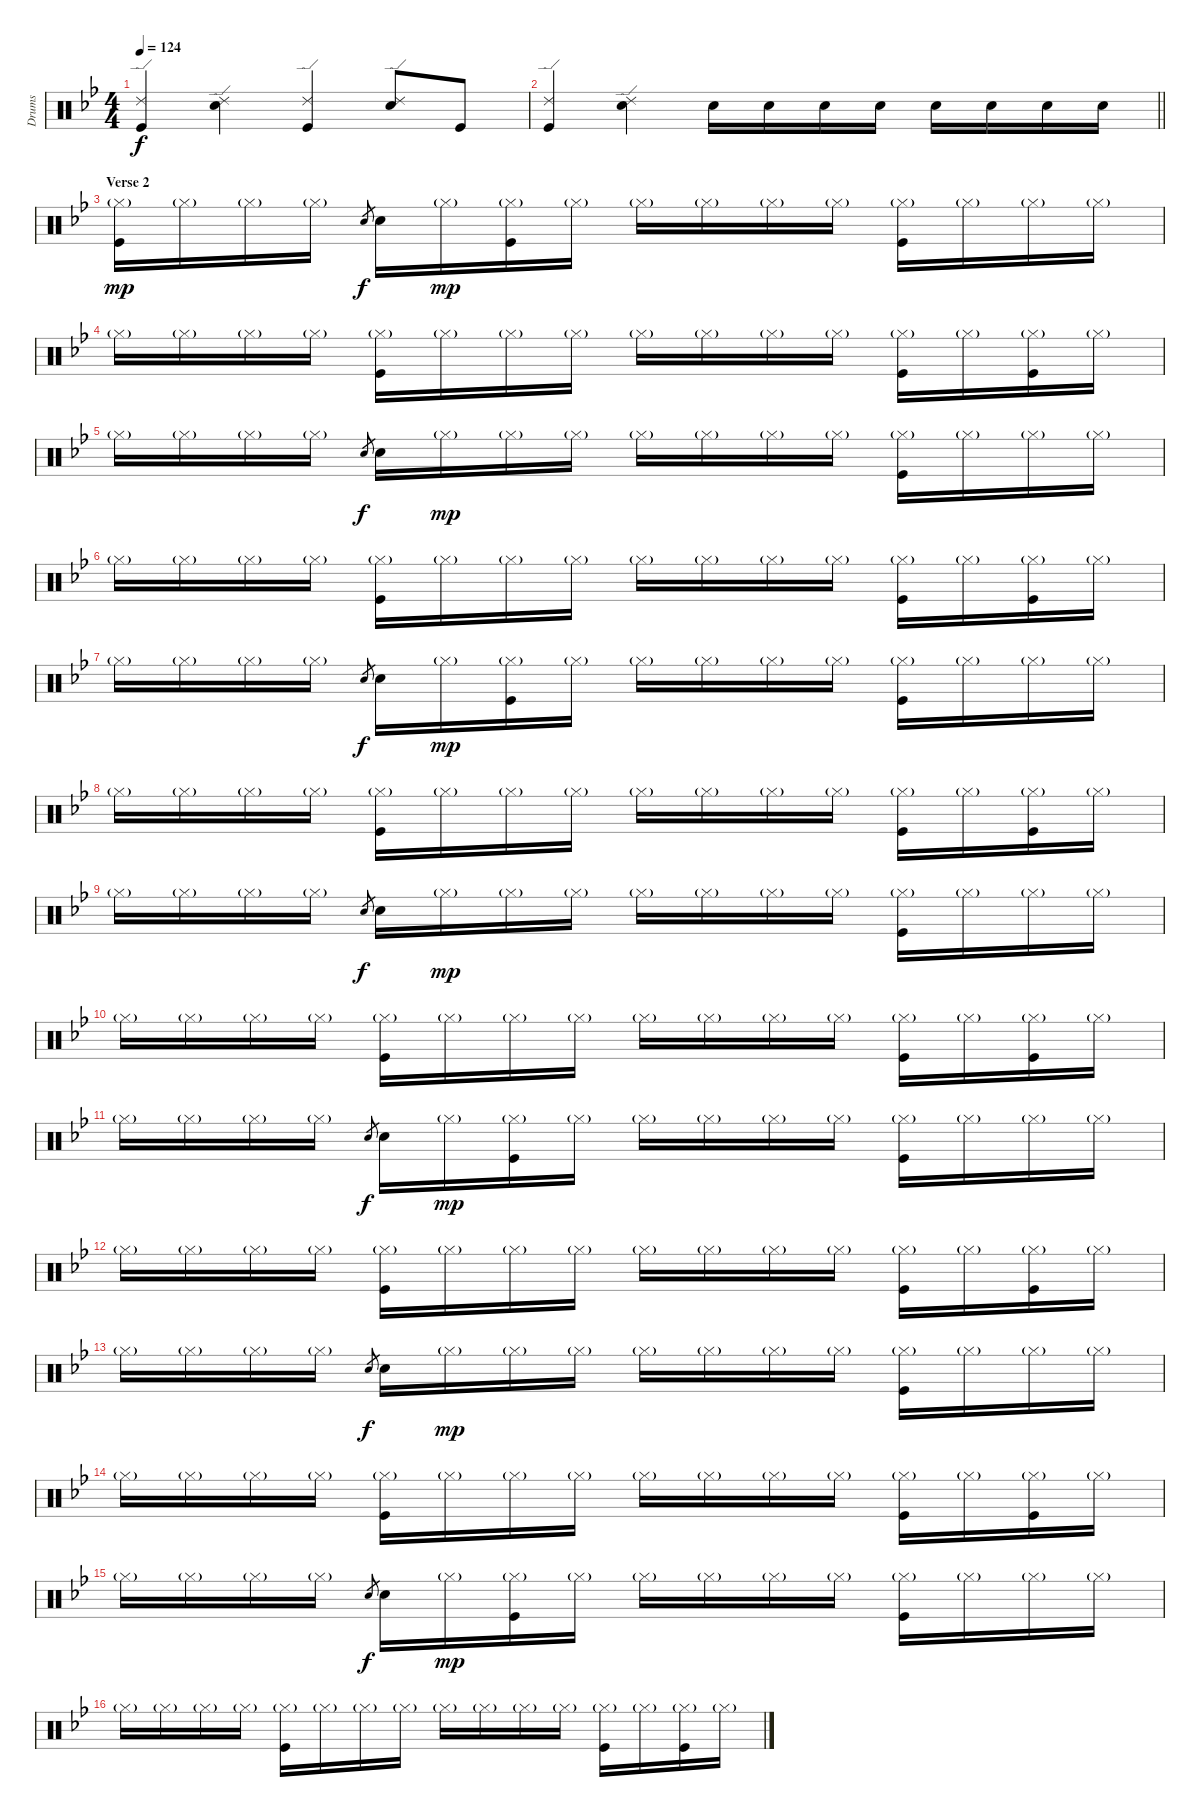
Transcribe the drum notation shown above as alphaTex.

\track ("Drums" "Drums") {instrument percussion}
\staff {score}
\articulation defaults
\ts (4 4)
\tempo 124
\clef neutral
\ks gminor
("Ride (edge) 2" "Kick (hit)").4{dy f} ("Ride (edge) 2" "Snare (hit) 2").4 ("Ride (edge) 2" "Kick (hit)").4 ("Ride (edge) 2" "Snare (hit) 2").8 "Kick (hit)".8 |
\barLineRight lightlight
("Ride (edge) 2" "Kick (hit)").4 ("Ride (edge) 2" "Snare (hit) 2").4 "Snare (hit) 2".16 "Snare (hit) 2".16 "Snare (hit) 2".16 "Snare (hit) 2".16 "Snare (hit) 2".16 "Snare (hit) 2".16 "Snare (hit) 2".16 "Snare (hit) 2".16 |
\section ("" "Verse 2")
("Hi-Hat (closed)"{g} "Kick (hit)").16{dy mp} "Hi-Hat (closed)"{g}.16 "Hi-Hat (closed)"{g}.16 "Hi-Hat (closed)"{g}.16 "Snare (hit) 2"{h}.8{gr dy f} "Snare (hit) 2".16 "Hi-Hat (closed)"{g}.16{dy mp} ("Hi-Hat (closed)"{g} "Kick (hit)").16 "Hi-Hat (closed)"{g}.16 "Hi-Hat (closed)"{g}.16 "Hi-Hat (closed)"{g}.16 "Hi-Hat (closed)"{g}.16 "Hi-Hat (closed)"{g}.16 ("Hi-Hat (closed)"{g} "Kick (hit)").16 "Hi-Hat (closed)"{g}.16 "Hi-Hat (closed)"{g}.16 "Hi-Hat (closed)"{g}.16 |
"Hi-Hat (closed)"{g}.16 "Hi-Hat (closed)"{g}.16 "Hi-Hat (closed)"{g}.16 "Hi-Hat (closed)"{g}.16 ("Hi-Hat (closed)"{g} "Kick (hit)").16 "Hi-Hat (closed)"{g}.16 "Hi-Hat (closed)"{g}.16 "Hi-Hat (closed)"{g}.16 "Hi-Hat (closed)"{g}.16 "Hi-Hat (closed)"{g}.16 "Hi-Hat (closed)"{g}.16 "Hi-Hat (closed)"{g}.16 ("Hi-Hat (closed)"{g} "Kick (hit)").16 "Hi-Hat (closed)"{g}.16 ("Hi-Hat (closed)"{g} "Kick (hit)").16 "Hi-Hat (closed)"{g}.16 |
"Hi-Hat (closed)"{g}.16 "Hi-Hat (closed)"{g}.16 "Hi-Hat (closed)"{g}.16 "Hi-Hat (closed)"{g}.16 "Snare (hit) 2"{h}.8{gr dy f} "Snare (hit) 2".16 "Hi-Hat (closed)"{g}.16{dy mp} "Hi-Hat (closed)"{g}.16 "Hi-Hat (closed)"{g}.16 "Hi-Hat (closed)"{g}.16 "Hi-Hat (closed)"{g}.16 "Hi-Hat (closed)"{g}.16 "Hi-Hat (closed)"{g}.16 ("Hi-Hat (closed)"{g} "Kick (hit)").16 "Hi-Hat (closed)"{g}.16 "Hi-Hat (closed)"{g}.16 "Hi-Hat (closed)"{g}.16 |
"Hi-Hat (closed)"{g}.16 "Hi-Hat (closed)"{g}.16 "Hi-Hat (closed)"{g}.16 "Hi-Hat (closed)"{g}.16 ("Hi-Hat (closed)"{g} "Kick (hit)").16 "Hi-Hat (closed)"{g}.16 "Hi-Hat (closed)"{g}.16 "Hi-Hat (closed)"{g}.16 "Hi-Hat (closed)"{g}.16 "Hi-Hat (closed)"{g}.16 "Hi-Hat (closed)"{g}.16 "Hi-Hat (closed)"{g}.16 ("Hi-Hat (closed)"{g} "Kick (hit)").16 "Hi-Hat (closed)"{g}.16 ("Hi-Hat (closed)"{g} "Kick (hit)").16 "Hi-Hat (closed)"{g}.16 |
"Hi-Hat (closed)"{g}.16 "Hi-Hat (closed)"{g}.16 "Hi-Hat (closed)"{g}.16 "Hi-Hat (closed)"{g}.16 "Snare (hit) 2"{h}.8{gr dy f} "Snare (hit) 2".16 "Hi-Hat (closed)"{g}.16{dy mp} ("Hi-Hat (closed)"{g} "Kick (hit)").16 "Hi-Hat (closed)"{g}.16 "Hi-Hat (closed)"{g}.16 "Hi-Hat (closed)"{g}.16 "Hi-Hat (closed)"{g}.16 "Hi-Hat (closed)"{g}.16 ("Hi-Hat (closed)"{g} "Kick (hit)").16 "Hi-Hat (closed)"{g}.16 "Hi-Hat (closed)"{g}.16 "Hi-Hat (closed)"{g}.16 |
"Hi-Hat (closed)"{g}.16 "Hi-Hat (closed)"{g}.16 "Hi-Hat (closed)"{g}.16 "Hi-Hat (closed)"{g}.16 ("Hi-Hat (closed)"{g} "Kick (hit)").16 "Hi-Hat (closed)"{g}.16 "Hi-Hat (closed)"{g}.16 "Hi-Hat (closed)"{g}.16 "Hi-Hat (closed)"{g}.16 "Hi-Hat (closed)"{g}.16 "Hi-Hat (closed)"{g}.16 "Hi-Hat (closed)"{g}.16 ("Hi-Hat (closed)"{g} "Kick (hit)").16 "Hi-Hat (closed)"{g}.16 ("Hi-Hat (closed)"{g} "Kick (hit)").16 "Hi-Hat (closed)"{g}.16 |
"Hi-Hat (closed)"{g}.16 "Hi-Hat (closed)"{g}.16 "Hi-Hat (closed)"{g}.16 "Hi-Hat (closed)"{g}.16 "Snare (hit) 2"{h}.8{gr dy f} "Snare (hit) 2".16 "Hi-Hat (closed)"{g}.16{dy mp} "Hi-Hat (closed)"{g}.16 "Hi-Hat (closed)"{g}.16 "Hi-Hat (closed)"{g}.16 "Hi-Hat (closed)"{g}.16 "Hi-Hat (closed)"{g}.16 "Hi-Hat (closed)"{g}.16 ("Hi-Hat (closed)"{g} "Kick (hit)").16 "Hi-Hat (closed)"{g}.16 "Hi-Hat (closed)"{g}.16 "Hi-Hat (closed)"{g}.16 |
"Hi-Hat (closed)"{g}.16 "Hi-Hat (closed)"{g}.16 "Hi-Hat (closed)"{g}.16 "Hi-Hat (closed)"{g}.16 ("Hi-Hat (closed)"{g} "Kick (hit)").16 "Hi-Hat (closed)"{g}.16 "Hi-Hat (closed)"{g}.16 "Hi-Hat (closed)"{g}.16 "Hi-Hat (closed)"{g}.16 "Hi-Hat (closed)"{g}.16 "Hi-Hat (closed)"{g}.16 "Hi-Hat (closed)"{g}.16 ("Hi-Hat (closed)"{g} "Kick (hit)").16 "Hi-Hat (closed)"{g}.16 ("Hi-Hat (closed)"{g} "Kick (hit)").16 "Hi-Hat (closed)"{g}.16 |
"Hi-Hat (closed)"{g}.16 "Hi-Hat (closed)"{g}.16 "Hi-Hat (closed)"{g}.16 "Hi-Hat (closed)"{g}.16 "Snare (hit) 2"{h}.8{gr dy f} "Snare (hit) 2".16 "Hi-Hat (closed)"{g}.16{dy mp} ("Hi-Hat (closed)"{g} "Kick (hit)").16 "Hi-Hat (closed)"{g}.16 "Hi-Hat (closed)"{g}.16 "Hi-Hat (closed)"{g}.16 "Hi-Hat (closed)"{g}.16 "Hi-Hat (closed)"{g}.16 ("Hi-Hat (closed)"{g} "Kick (hit)").16 "Hi-Hat (closed)"{g}.16 "Hi-Hat (closed)"{g}.16 "Hi-Hat (closed)"{g}.16 |
"Hi-Hat (closed)"{g}.16 "Hi-Hat (closed)"{g}.16 "Hi-Hat (closed)"{g}.16 "Hi-Hat (closed)"{g}.16 ("Hi-Hat (closed)"{g} "Kick (hit)").16 "Hi-Hat (closed)"{g}.16 "Hi-Hat (closed)"{g}.16 "Hi-Hat (closed)"{g}.16 "Hi-Hat (closed)"{g}.16 "Hi-Hat (closed)"{g}.16 "Hi-Hat (closed)"{g}.16 "Hi-Hat (closed)"{g}.16 ("Hi-Hat (closed)"{g} "Kick (hit)").16 "Hi-Hat (closed)"{g}.16 ("Hi-Hat (closed)"{g} "Kick (hit)").16 "Hi-Hat (closed)"{g}.16 |
"Hi-Hat (closed)"{g}.16 "Hi-Hat (closed)"{g}.16 "Hi-Hat (closed)"{g}.16 "Hi-Hat (closed)"{g}.16 "Snare (hit) 2"{h}.8{gr dy f} "Snare (hit) 2".16 "Hi-Hat (closed)"{g}.16{dy mp} "Hi-Hat (closed)"{g}.16 "Hi-Hat (closed)"{g}.16 "Hi-Hat (closed)"{g}.16 "Hi-Hat (closed)"{g}.16 "Hi-Hat (closed)"{g}.16 "Hi-Hat (closed)"{g}.16 ("Hi-Hat (closed)"{g} "Kick (hit)").16 "Hi-Hat (closed)"{g}.16 "Hi-Hat (closed)"{g}.16 "Hi-Hat (closed)"{g}.16 |
"Hi-Hat (closed)"{g}.16 "Hi-Hat (closed)"{g}.16 "Hi-Hat (closed)"{g}.16 "Hi-Hat (closed)"{g}.16 ("Hi-Hat (closed)"{g} "Kick (hit)").16 "Hi-Hat (closed)"{g}.16 "Hi-Hat (closed)"{g}.16 "Hi-Hat (closed)"{g}.16 "Hi-Hat (closed)"{g}.16 "Hi-Hat (closed)"{g}.16 "Hi-Hat (closed)"{g}.16 "Hi-Hat (closed)"{g}.16 ("Hi-Hat (closed)"{g} "Kick (hit)").16 "Hi-Hat (closed)"{g}.16 ("Hi-Hat (closed)"{g} "Kick (hit)").16 "Hi-Hat (closed)"{g}.16 |
"Hi-Hat (closed)"{g}.16 "Hi-Hat (closed)"{g}.16 "Hi-Hat (closed)"{g}.16 "Hi-Hat (closed)"{g}.16 "Snare (hit) 2"{h}.8{gr dy f} "Snare (hit) 2".16 "Hi-Hat (closed)"{g}.16{dy mp} ("Hi-Hat (closed)"{g} "Kick (hit)").16 "Hi-Hat (closed)"{g}.16 "Hi-Hat (closed)"{g}.16 "Hi-Hat (closed)"{g}.16 "Hi-Hat (closed)"{g}.16 "Hi-Hat (closed)"{g}.16 ("Hi-Hat (closed)"{g} "Kick (hit)").16 "Hi-Hat (closed)"{g}.16 "Hi-Hat (closed)"{g}.16 "Hi-Hat (closed)"{g}.16 |
"Hi-Hat (closed)"{g}.16 "Hi-Hat (closed)"{g}.16 "Hi-Hat (closed)"{g}.16 "Hi-Hat (closed)"{g}.16 ("Hi-Hat (closed)"{g} "Kick (hit)").16 "Hi-Hat (closed)"{g}.16 "Hi-Hat (closed)"{g}.16 "Hi-Hat (closed)"{g}.16 "Hi-Hat (closed)"{g}.16 "Hi-Hat (closed)"{g}.16 "Hi-Hat (closed)"{g}.16 "Hi-Hat (closed)"{g}.16 ("Hi-Hat (closed)"{g} "Kick (hit)").16 "Hi-Hat (closed)"{g}.16 ("Hi-Hat (closed)"{g} "Kick (hit)").16 "Hi-Hat (closed)"{g}.16
